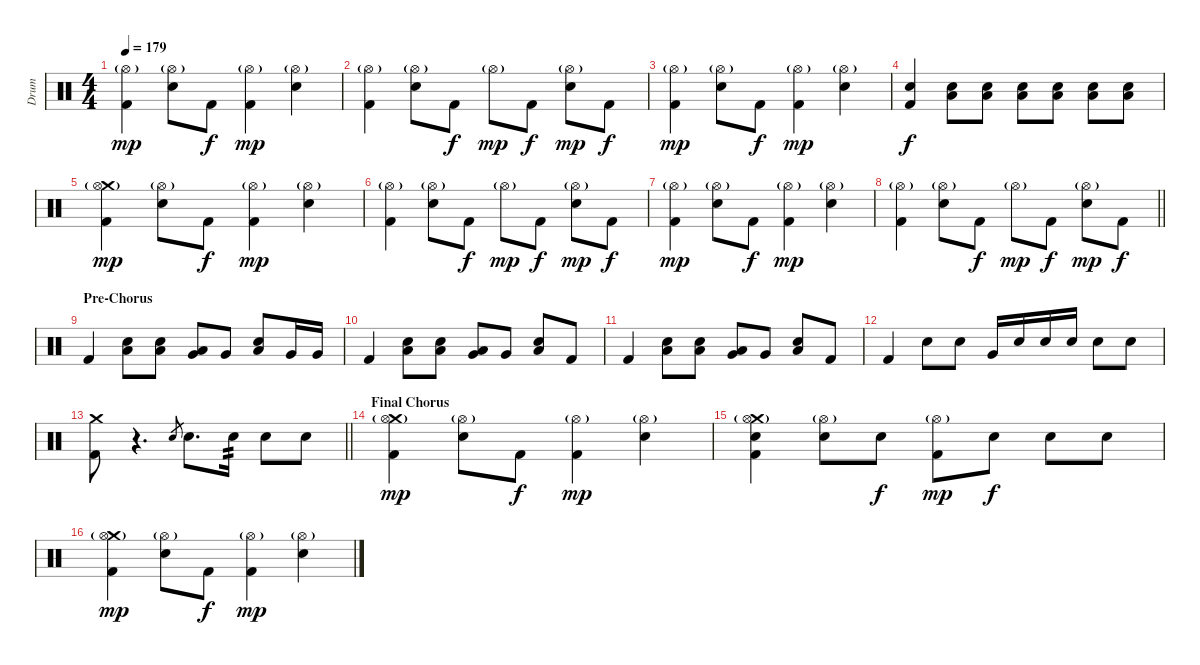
\track ("Drum" "Drum") {instrument percussion}
\staff {score}
\articulation defaults
\ts (4 4)
\tempo 179
\clef neutral
\ks c
("Hi-Hat (open)"{g} "Kick (hit) 2").4{dy mp} ("Hi-Hat (open)"{g} "Electric Snare (hit)").8 "Kick (hit) 2".8{dy f} ("Hi-Hat (open)"{g} "Kick (hit) 2").4{dy mp} ("Hi-Hat (open)"{g} "Electric Snare (hit)").4 |
("Hi-Hat (open)"{g} "Kick (hit) 2").4 ("Hi-Hat (open)"{g} "Electric Snare (hit)").8 "Kick (hit) 2".8{dy f} "Hi-Hat (open)"{g}.8{dy mp} "Kick (hit) 2".8{dy f} ("Hi-Hat (open)"{g} "Electric Snare (hit)").8{dy mp} "Kick (hit) 2".8{dy f} |
("Hi-Hat (open)"{g} "Kick (hit) 2").4{dy mp} ("Hi-Hat (open)"{g} "Electric Snare (hit)").8 "Kick (hit) 2".8{dy f} ("Hi-Hat (open)"{g} "Kick (hit) 2").4{dy mp} ("Hi-Hat (open)"{g} "Electric Snare (hit)").4 |
("Electric Snare (hit)" "Kick (hit) 2").4{dy f} ("Electric Snare (hit)" "Low Floor Tom (hit)").8 ("Electric Snare (hit)" "Low Floor Tom (hit)").8 ("Electric Snare (hit)" "Low Floor Tom (hit)").8 ("Electric Snare (hit)" "Low Floor Tom (hit)").8 ("Electric Snare (hit)" "Low Floor Tom (hit)").8 ("Electric Snare (hit)" "Low Floor Tom (hit)").8 |
("Crash medium (hit)" "Hi-Hat (open)"{g} "Kick (hit) 2").4{dy mp} ("Hi-Hat (open)"{g} "Electric Snare (hit)").8 "Kick (hit) 2".8{dy f} ("Hi-Hat (open)"{g} "Kick (hit) 2").4{dy mp} ("Hi-Hat (open)"{g} "Electric Snare (hit)").4 |
("Hi-Hat (open)"{g} "Kick (hit) 2").4 ("Hi-Hat (open)"{g} "Electric Snare (hit)").8 "Kick (hit) 2".8{dy f} "Hi-Hat (open)"{g}.8{dy mp} "Kick (hit) 2".8{dy f} ("Hi-Hat (open)"{g} "Electric Snare (hit)").8{dy mp} "Kick (hit) 2".8{dy f} |
("Hi-Hat (open)"{g} "Kick (hit) 2").4{dy mp} ("Hi-Hat (open)"{g} "Electric Snare (hit)").8 "Kick (hit) 2".8{dy f} ("Hi-Hat (open)"{g} "Kick (hit) 2").4{dy mp} ("Hi-Hat (open)"{g} "Electric Snare (hit)").4 |
\barLineRight lightlight
("Hi-Hat (open)"{g} "Kick (hit) 2").4 ("Hi-Hat (open)"{g} "Electric Snare (hit)").8 "Kick (hit) 2".8{dy f} "Hi-Hat (open)"{g}.8{dy mp} "Kick (hit) 2".8{dy f} ("Hi-Hat (open)"{g} "Electric Snare (hit)").8{dy mp} "Kick (hit) 2".8{dy f} |
\section ("" "Pre-Chorus")
"Kick (hit) 2".4 ("Electric Snare (hit)" "Low Floor Tom (hit)").8 ("Electric Snare (hit)" "Low Floor Tom (hit)").8 ("Low Tom (hit)" "Very Low Tom (hit)").8 "Very Low Tom (hit)".8 ("Electric Snare (hit)" "Low Floor Tom (hit)").8 "Very Low Tom (hit)".16 "Very Low Tom (hit)".16 |
"Kick (hit) 2".4 ("Electric Snare (hit)" "Low Floor Tom (hit)").8 ("Electric Snare (hit)" "Low Floor Tom (hit)").8 ("Low Tom (hit)" "Very Low Tom (hit)").8 "Very Low Tom (hit)".8 ("Electric Snare (hit)" "Low Floor Tom (hit)").8 "Kick (hit) 2".8 |
"Kick (hit) 2".4 ("Electric Snare (hit)" "Low Floor Tom (hit)").8 ("Electric Snare (hit)" "Low Floor Tom (hit)").8 ("Low Tom (hit)" "Very Low Tom (hit)").8 "Very Low Tom (hit)".8 ("Electric Snare (hit)" "Low Floor Tom (hit)").8 "Kick (hit) 2".8 |
"Kick (hit) 2".4 "Electric Snare (hit)".8 "Electric Snare (hit)".8 "Very Low Tom (hit)".16 "Electric Snare (hit)".16 "Electric Snare (hit)".16 "Electric Snare (hit)".16 "Electric Snare (hit)".8 "Electric Snare (hit)".8 |
\barLineRight lightlight
("Crash medium (hit)" "Kick (hit) 2").8 r.4{d} "Electric Snare (hit)".8{gr} "Electric Snare (hit)".8{d} "Electric Snare (hit)".16{tp 2} "Electric Snare (hit)".8 "Electric Snare (hit)".8 |
\section ("" "Final Chorus")
("Crash medium (hit)" "Hi-Hat (open)"{g} "Kick (hit) 2").4{dy mp} ("Hi-Hat (open)"{g} "Electric Snare (hit)").8 "Kick (hit) 2".8{dy f} ("Hi-Hat (open)"{g} "Kick (hit) 2").4{dy mp} ("Hi-Hat (open)"{g} "Electric Snare (hit)").4 |
("Crash medium (hit)" "Hi-Hat (open)"{g} "Electric Snare (hit)" "Kick (hit) 2").4 ("Hi-Hat (open)"{g} "Electric Snare (hit)").8 "Electric Snare (hit)".8{dy f} ("Hi-Hat (open)"{g} "Kick (hit) 2").8{dy mp} "Electric Snare (hit)".8{dy f} "Electric Snare (hit)".8 "Electric Snare (hit)".8 |
("Crash medium (hit)" "Hi-Hat (open)"{g} "Kick (hit) 2").4{dy mp} ("Hi-Hat (open)"{g} "Electric Snare (hit)").8 "Kick (hit) 2".8{dy f} ("Hi-Hat (open)"{g} "Kick (hit) 2").4{dy mp} ("Hi-Hat (open)"{g} "Electric Snare (hit)").4
